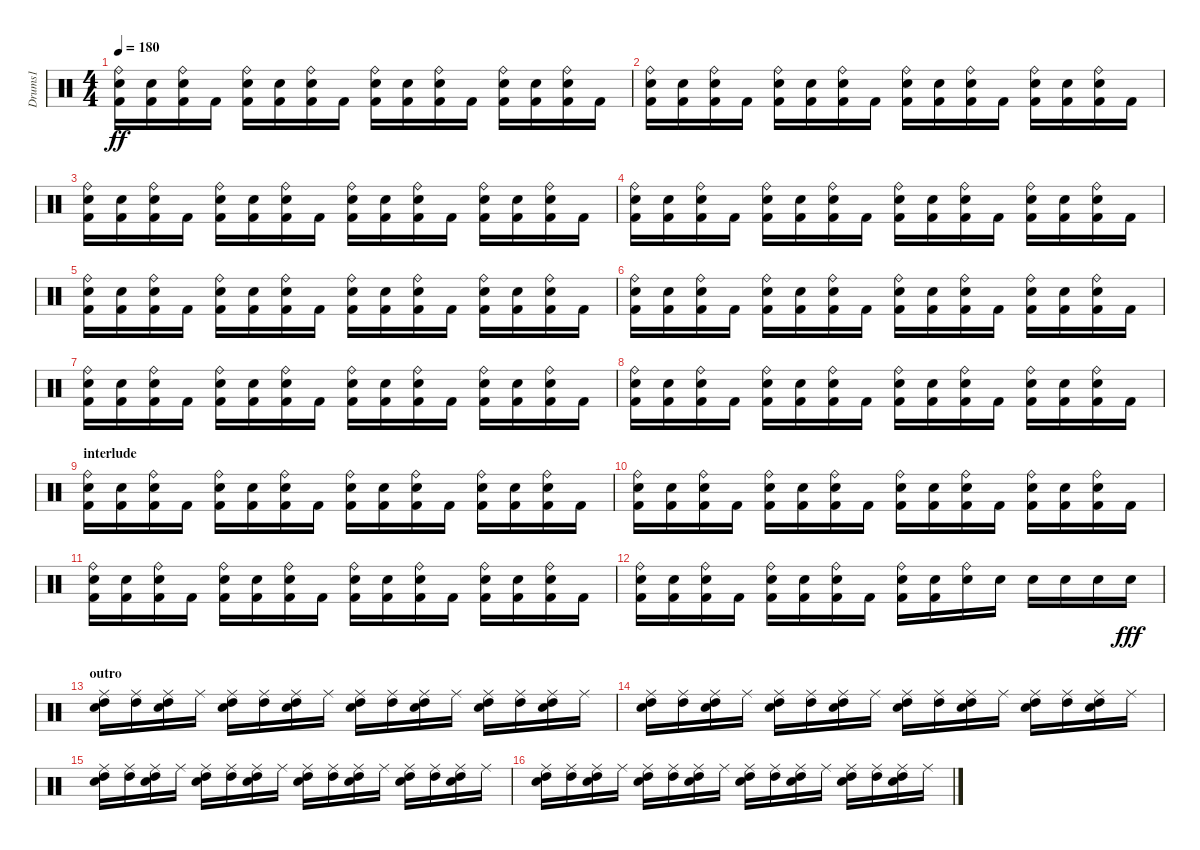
\track ("Drums1" "Drums1") {instrument percussion}
\staff {score}
\articulation defaults
\ts (4 4)
\tempo 180
\clef neutral
\ks c
("Ride (bell)" "Electric Snare (hit)" "Kick (hit) 2").16{dy ff} ("Electric Snare (hit)" "Kick (hit) 2").16 ("Ride (bell)" "Electric Snare (hit)" "Kick (hit) 2").16 "Kick (hit) 2".16 ("Ride (bell)" "Electric Snare (hit)" "Kick (hit) 2").16 ("Electric Snare (hit)" "Kick (hit) 2").16 ("Ride (bell)" "Electric Snare (hit)" "Kick (hit) 2").16 "Kick (hit) 2".16 ("Ride (bell)" "Electric Snare (hit)" "Kick (hit) 2").16 ("Electric Snare (hit)" "Kick (hit) 2").16 ("Ride (bell)" "Electric Snare (hit)" "Kick (hit) 2").16 "Kick (hit) 2".16 ("Ride (bell)" "Electric Snare (hit)" "Kick (hit) 2").16 ("Electric Snare (hit)" "Kick (hit) 2").16 ("Ride (bell)" "Electric Snare (hit)" "Kick (hit) 2").16 "Kick (hit) 2".16 |
("Ride (bell)" "Electric Snare (hit)" "Kick (hit) 2").16 ("Electric Snare (hit)" "Kick (hit) 2").16 ("Ride (bell)" "Electric Snare (hit)" "Kick (hit) 2").16 "Kick (hit) 2".16 ("Ride (bell)" "Electric Snare (hit)" "Kick (hit) 2").16 ("Electric Snare (hit)" "Kick (hit) 2").16 ("Ride (bell)" "Electric Snare (hit)" "Kick (hit) 2").16 "Kick (hit) 2".16 ("Ride (bell)" "Electric Snare (hit)" "Kick (hit) 2").16 ("Electric Snare (hit)" "Kick (hit) 2").16 ("Ride (bell)" "Electric Snare (hit)" "Kick (hit) 2").16 "Kick (hit) 2".16 ("Ride (bell)" "Electric Snare (hit)" "Kick (hit) 2").16 ("Electric Snare (hit)" "Kick (hit) 2").16 ("Ride (bell)" "Electric Snare (hit)" "Kick (hit) 2").16 "Kick (hit) 2".16 |
("Ride (bell)" "Electric Snare (hit)" "Kick (hit) 2").16 ("Electric Snare (hit)" "Kick (hit) 2").16 ("Ride (bell)" "Electric Snare (hit)" "Kick (hit) 2").16 "Kick (hit) 2".16 ("Ride (bell)" "Electric Snare (hit)" "Kick (hit) 2").16 ("Electric Snare (hit)" "Kick (hit) 2").16 ("Ride (bell)" "Electric Snare (hit)" "Kick (hit) 2").16 "Kick (hit) 2".16 ("Ride (bell)" "Electric Snare (hit)" "Kick (hit) 2").16 ("Electric Snare (hit)" "Kick (hit) 2").16 ("Ride (bell)" "Electric Snare (hit)" "Kick (hit) 2").16 "Kick (hit) 2".16 ("Ride (bell)" "Electric Snare (hit)" "Kick (hit) 2").16 ("Electric Snare (hit)" "Kick (hit) 2").16 ("Ride (bell)" "Electric Snare (hit)" "Kick (hit) 2").16 "Kick (hit) 2".16 |
("Ride (bell)" "Electric Snare (hit)" "Kick (hit) 2").16 ("Electric Snare (hit)" "Kick (hit) 2").16 ("Ride (bell)" "Electric Snare (hit)" "Kick (hit) 2").16 "Kick (hit) 2".16 ("Ride (bell)" "Electric Snare (hit)" "Kick (hit) 2").16 ("Electric Snare (hit)" "Kick (hit) 2").16 ("Ride (bell)" "Electric Snare (hit)" "Kick (hit) 2").16 "Kick (hit) 2".16 ("Ride (bell)" "Electric Snare (hit)" "Kick (hit) 2").16 ("Electric Snare (hit)" "Kick (hit) 2").16 ("Ride (bell)" "Electric Snare (hit)" "Kick (hit) 2").16 "Kick (hit) 2".16 ("Ride (bell)" "Electric Snare (hit)" "Kick (hit) 2").16 ("Electric Snare (hit)" "Kick (hit) 2").16 ("Ride (bell)" "Electric Snare (hit)" "Kick (hit) 2").16 "Kick (hit) 2".16 |
("Ride (bell)" "Electric Snare (hit)" "Kick (hit) 2").16 ("Electric Snare (hit)" "Kick (hit) 2").16 ("Ride (bell)" "Electric Snare (hit)" "Kick (hit) 2").16 "Kick (hit) 2".16 ("Ride (bell)" "Electric Snare (hit)" "Kick (hit) 2").16 ("Electric Snare (hit)" "Kick (hit) 2").16 ("Ride (bell)" "Electric Snare (hit)" "Kick (hit) 2").16 "Kick (hit) 2".16 ("Ride (bell)" "Electric Snare (hit)" "Kick (hit) 2").16 ("Electric Snare (hit)" "Kick (hit) 2").16 ("Ride (bell)" "Electric Snare (hit)" "Kick (hit) 2").16 "Kick (hit) 2".16 ("Ride (bell)" "Electric Snare (hit)" "Kick (hit) 2").16 ("Electric Snare (hit)" "Kick (hit) 2").16 ("Ride (bell)" "Electric Snare (hit)" "Kick (hit) 2").16 "Kick (hit) 2".16 |
("Ride (bell)" "Electric Snare (hit)" "Kick (hit) 2").16 ("Electric Snare (hit)" "Kick (hit) 2").16 ("Ride (bell)" "Electric Snare (hit)" "Kick (hit) 2").16 "Kick (hit) 2".16 ("Ride (bell)" "Electric Snare (hit)" "Kick (hit) 2").16 ("Electric Snare (hit)" "Kick (hit) 2").16 ("Ride (bell)" "Electric Snare (hit)" "Kick (hit) 2").16 "Kick (hit) 2".16 ("Ride (bell)" "Electric Snare (hit)" "Kick (hit) 2").16 ("Electric Snare (hit)" "Kick (hit) 2").16 ("Ride (bell)" "Electric Snare (hit)" "Kick (hit) 2").16 "Kick (hit) 2".16 ("Ride (bell)" "Electric Snare (hit)" "Kick (hit) 2").16 ("Electric Snare (hit)" "Kick (hit) 2").16 ("Ride (bell)" "Electric Snare (hit)" "Kick (hit) 2").16 "Kick (hit) 2".16 |
("Ride (bell)" "Electric Snare (hit)" "Kick (hit) 2").16 ("Electric Snare (hit)" "Kick (hit) 2").16 ("Ride (bell)" "Electric Snare (hit)" "Kick (hit) 2").16 "Kick (hit) 2".16 ("Ride (bell)" "Electric Snare (hit)" "Kick (hit) 2").16 ("Electric Snare (hit)" "Kick (hit) 2").16 ("Ride (bell)" "Electric Snare (hit)" "Kick (hit) 2").16 "Kick (hit) 2".16 ("Ride (bell)" "Electric Snare (hit)" "Kick (hit) 2").16 ("Electric Snare (hit)" "Kick (hit) 2").16 ("Ride (bell)" "Electric Snare (hit)" "Kick (hit) 2").16 "Kick (hit) 2".16 ("Ride (bell)" "Electric Snare (hit)" "Kick (hit) 2").16 ("Electric Snare (hit)" "Kick (hit) 2").16 ("Ride (bell)" "Electric Snare (hit)" "Kick (hit) 2").16 "Kick (hit) 2".16 |
("Ride (bell)" "Electric Snare (hit)" "Kick (hit) 2").16 ("Electric Snare (hit)" "Kick (hit) 2").16 ("Ride (bell)" "Electric Snare (hit)" "Kick (hit) 2").16 "Kick (hit) 2".16 ("Ride (bell)" "Electric Snare (hit)" "Kick (hit) 2").16 ("Electric Snare (hit)" "Kick (hit) 2").16 ("Ride (bell)" "Electric Snare (hit)" "Kick (hit) 2").16 "Kick (hit) 2".16 ("Ride (bell)" "Electric Snare (hit)" "Kick (hit) 2").16 ("Electric Snare (hit)" "Kick (hit) 2").16 ("Ride (bell)" "Electric Snare (hit)" "Kick (hit) 2").16 "Kick (hit) 2".16 ("Ride (bell)" "Electric Snare (hit)" "Kick (hit) 2").16 ("Electric Snare (hit)" "Kick (hit) 2").16 ("Ride (bell)" "Electric Snare (hit)" "Kick (hit) 2").16 "Kick (hit) 2".16 |
\section ("" "interlude")
("Ride (bell)" "Electric Snare (hit)" "Kick (hit) 2").16 ("Electric Snare (hit)" "Kick (hit) 2").16 ("Ride (bell)" "Electric Snare (hit)" "Kick (hit) 2").16 "Kick (hit) 2".16 ("Ride (bell)" "Electric Snare (hit)" "Kick (hit) 2").16 ("Electric Snare (hit)" "Kick (hit) 2").16 ("Ride (bell)" "Electric Snare (hit)" "Kick (hit) 2").16 "Kick (hit) 2".16 ("Ride (bell)" "Electric Snare (hit)" "Kick (hit) 2").16 ("Electric Snare (hit)" "Kick (hit) 2").16 ("Ride (bell)" "Electric Snare (hit)" "Kick (hit) 2").16 "Kick (hit) 2".16 ("Ride (bell)" "Electric Snare (hit)" "Kick (hit) 2").16 ("Electric Snare (hit)" "Kick (hit) 2").16 ("Ride (bell)" "Electric Snare (hit)" "Kick (hit) 2").16 "Kick (hit) 2".16 |
("Ride (bell)" "Electric Snare (hit)" "Kick (hit) 2").16 ("Electric Snare (hit)" "Kick (hit) 2").16 ("Ride (bell)" "Electric Snare (hit)" "Kick (hit) 2").16 "Kick (hit) 2".16 ("Ride (bell)" "Electric Snare (hit)" "Kick (hit) 2").16 ("Electric Snare (hit)" "Kick (hit) 2").16 ("Ride (bell)" "Electric Snare (hit)" "Kick (hit) 2").16 "Kick (hit) 2".16 ("Ride (bell)" "Electric Snare (hit)" "Kick (hit) 2").16 ("Electric Snare (hit)" "Kick (hit) 2").16 ("Ride (bell)" "Electric Snare (hit)" "Kick (hit) 2").16 "Kick (hit) 2".16 ("Ride (bell)" "Electric Snare (hit)" "Kick (hit) 2").16 ("Electric Snare (hit)" "Kick (hit) 2").16 ("Ride (bell)" "Electric Snare (hit)" "Kick (hit) 2").16 "Kick (hit) 2".16 |
("Ride (bell)" "Electric Snare (hit)" "Kick (hit) 2").16 ("Electric Snare (hit)" "Kick (hit) 2").16 ("Ride (bell)" "Electric Snare (hit)" "Kick (hit) 2").16 "Kick (hit) 2".16 ("Ride (bell)" "Electric Snare (hit)" "Kick (hit) 2").16 ("Electric Snare (hit)" "Kick (hit) 2").16 ("Ride (bell)" "Electric Snare (hit)" "Kick (hit) 2").16 "Kick (hit) 2".16 ("Ride (bell)" "Electric Snare (hit)" "Kick (hit) 2").16 ("Electric Snare (hit)" "Kick (hit) 2").16 ("Ride (bell)" "Electric Snare (hit)" "Kick (hit) 2").16 "Kick (hit) 2".16 ("Ride (bell)" "Electric Snare (hit)" "Kick (hit) 2").16 ("Electric Snare (hit)" "Kick (hit) 2").16 ("Ride (bell)" "Electric Snare (hit)" "Kick (hit) 2").16 "Kick (hit) 2".16 |
("Ride (bell)" "Electric Snare (hit)" "Kick (hit) 2").16 ("Electric Snare (hit)" "Kick (hit) 2").16 ("Ride (bell)" "Electric Snare (hit)" "Kick (hit) 2").16 "Kick (hit) 2".16 ("Ride (bell)" "Electric Snare (hit)" "Kick (hit) 2").16 ("Electric Snare (hit)" "Kick (hit) 2").16 ("Ride (bell)" "Electric Snare (hit)" "Kick (hit) 2").16 "Kick (hit) 2".16 ("Ride (bell)" "Electric Snare (hit)" "Kick (hit) 2").16 ("Electric Snare (hit)" "Kick (hit) 2").16 ("Ride (bell)" "Electric Snare (hit)").16 "Electric Snare (hit)".16 "Electric Snare (hit)".16 "Electric Snare (hit)".16 "Electric Snare (hit)".16 "Electric Snare (hit)".16{dy fff} |
\section ("" "outro")
("Electric Snare (hit)" "Ride (middle)" "High Tom (hit)").16 ("Ride (middle)" "High Tom (hit)").16 ("Electric Snare (hit)" "Ride (middle)" "High Tom (hit)").16 "Ride (middle)".16 ("Electric Snare (hit)" "Ride (middle)" "High Tom (hit)").16 ("Ride (middle)" "High Tom (hit)").16 ("Electric Snare (hit)" "Ride (middle)" "High Tom (hit)").16 "Ride (middle)".16 ("Electric Snare (hit)" "Ride (middle)" "High Tom (hit)").16 ("Ride (middle)" "High Tom (hit)").16 ("Electric Snare (hit)" "Ride (middle)" "High Tom (hit)").16 "Ride (middle)".16 ("Electric Snare (hit)" "Ride (middle)" "High Tom (hit)").16 ("Ride (middle)" "High Tom (hit)").16 ("Electric Snare (hit)" "Ride (middle)" "High Tom (hit)").16 "Ride (middle)".16 |
("Electric Snare (hit)" "Ride (middle)" "High Tom (hit)").16 ("Ride (middle)" "High Tom (hit)").16 ("Electric Snare (hit)" "Ride (middle)" "High Tom (hit)").16 "Ride (middle)".16 ("Electric Snare (hit)" "Ride (middle)" "High Tom (hit)").16 ("Ride (middle)" "High Tom (hit)").16 ("Electric Snare (hit)" "Ride (middle)" "High Tom (hit)").16 "Ride (middle)".16 ("Electric Snare (hit)" "Ride (middle)" "High Tom (hit)").16 ("Ride (middle)" "High Tom (hit)").16 ("Electric Snare (hit)" "Ride (middle)" "High Tom (hit)").16 "Ride (middle)".16 ("Electric Snare (hit)" "Ride (middle)" "High Tom (hit)").16 ("Ride (middle)" "High Tom (hit)").16 ("Electric Snare (hit)" "Ride (middle)" "High Tom (hit)").16 "Ride (middle)".16 |
("Electric Snare (hit)" "Ride (middle)" "High Tom (hit)").16 ("Ride (middle)" "High Tom (hit)").16 ("Electric Snare (hit)" "Ride (middle)" "High Tom (hit)").16 "Ride (middle)".16 ("Electric Snare (hit)" "Ride (middle)" "High Tom (hit)").16 ("Ride (middle)" "High Tom (hit)").16 ("Electric Snare (hit)" "Ride (middle)" "High Tom (hit)").16 "Ride (middle)".16 ("Electric Snare (hit)" "Ride (middle)" "High Tom (hit)").16 ("Ride (middle)" "High Tom (hit)").16 ("Electric Snare (hit)" "Ride (middle)" "High Tom (hit)").16 "Ride (middle)".16 ("Electric Snare (hit)" "Ride (middle)" "High Tom (hit)").16 ("Ride (middle)" "High Tom (hit)").16 ("Electric Snare (hit)" "Ride (middle)" "High Tom (hit)").16 "Ride (middle)".16 |
("Electric Snare (hit)" "Ride (middle)" "High Tom (hit)").16 ("Ride (middle)" "High Tom (hit)").16 ("Electric Snare (hit)" "Ride (middle)" "High Tom (hit)").16 "Ride (middle)".16 ("Electric Snare (hit)" "Ride (middle)" "High Tom (hit)").16 ("Ride (middle)" "High Tom (hit)").16 ("Electric Snare (hit)" "Ride (middle)" "High Tom (hit)").16 "Ride (middle)".16 ("Electric Snare (hit)" "Ride (middle)" "High Tom (hit)").16 ("Ride (middle)" "High Tom (hit)").16 ("Electric Snare (hit)" "Ride (middle)" "High Tom (hit)").16 "Ride (middle)".16 ("Electric Snare (hit)" "Ride (middle)" "High Tom (hit)").16 ("Ride (middle)" "High Tom (hit)").16 ("Electric Snare (hit)" "Ride (middle)" "High Tom (hit)").16 "Ride (middle)".16
